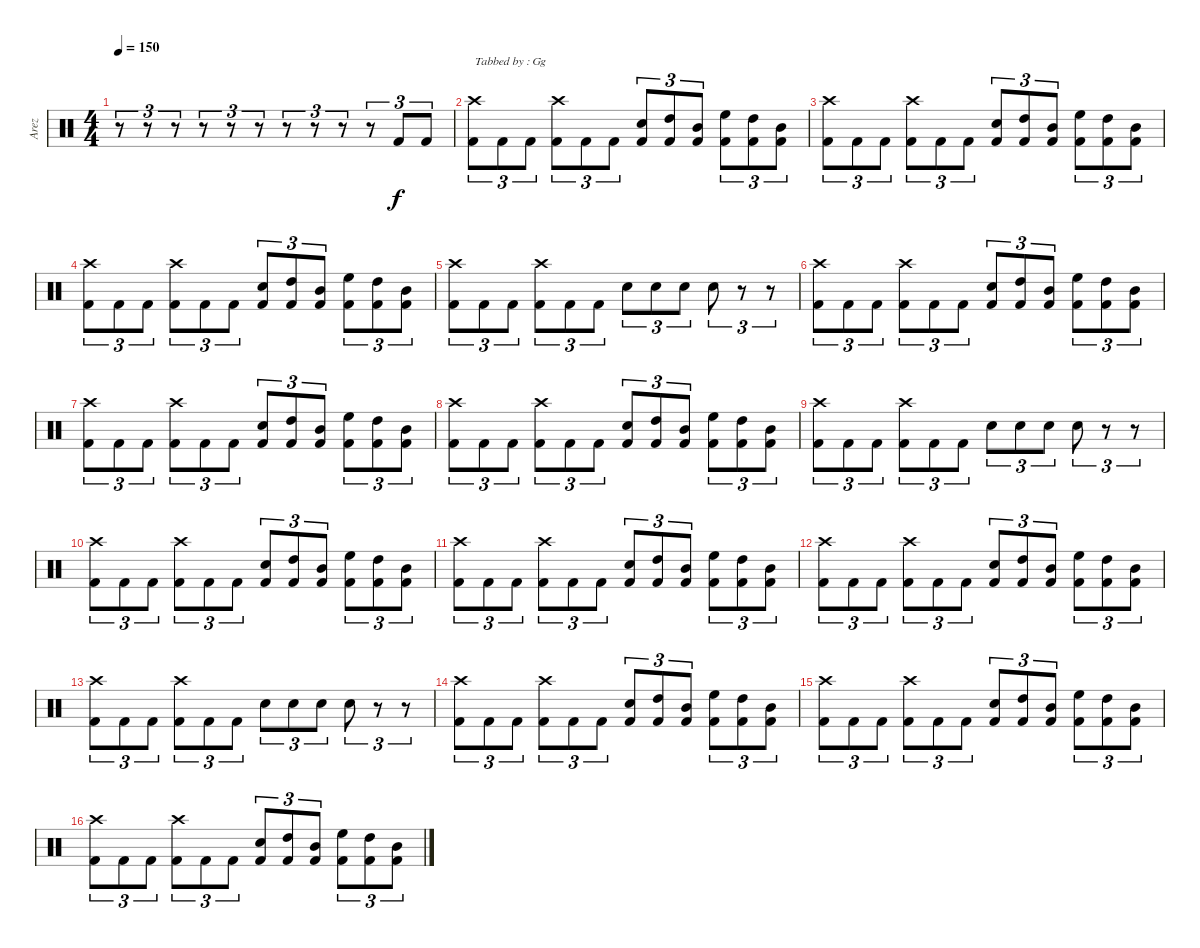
\track ("Arez" "Arez") {instrument percussion}
\staff {score}
\articulation defaults
\ts (4 4)
\tempo 150
\clef neutral
\ks c
r.8{tu (3 2) dy f} r.8{tu (3 2)} r.8{tu (3 2)} r.8{tu (3 2)} r.8{tu (3 2)} r.8{tu (3 2)} r.8{tu (3 2)} r.8{tu (3 2)} r.8{tu (3 2)} r.8{tu (3 2)} "Kick (hit) 2".8{tu (3 2)} "Kick (hit) 2".8{tu (3 2)} |
("Crash high (hit)" "Kick (hit) 2").8{tu (3 2) txt "Tabbed by : Gg"} "Kick (hit) 2".8{tu (3 2)} "Kick (hit) 2".8{tu (3 2)} ("Crash high (hit)" "Kick (hit) 2").8{tu (3 2)} "Kick (hit) 2".8{tu (3 2)} "Kick (hit) 2".8{tu (3 2)} ("Kick (hit) 2" "Electric Snare (hit)").8{tu (3 2)} ("High Tom (hit)" "Kick (hit) 2").8{tu (3 2)} ("Kick (hit) 2" "Mid Tom (hit)").8{tu (3 2)} ("Kick (hit) 2" "High Floor Tom (hit)").8{tu (3 2)} ("High Tom (hit)" "Kick (hit) 2").8{tu (3 2)} ("Kick (hit) 2" "Mid Tom (hit)").8{tu (3 2)} |
("Crash high (hit)" "Kick (hit) 2").8{tu (3 2)} "Kick (hit) 2".8{tu (3 2)} "Kick (hit) 2".8{tu (3 2)} ("Kick (hit) 2" "Crash high (hit)").8{tu (3 2)} "Kick (hit) 2".8{tu (3 2)} "Kick (hit) 2".8{tu (3 2)} ("Kick (hit) 2" "Electric Snare (hit)").8{tu (3 2)} ("High Tom (hit)" "Kick (hit) 2").8{tu (3 2)} ("Kick (hit) 2" "Mid Tom (hit)").8{tu (3 2)} ("Kick (hit) 2" "High Floor Tom (hit)").8{tu (3 2)} ("High Tom (hit)" "Kick (hit) 2").8{tu (3 2)} ("Kick (hit) 2" "Mid Tom (hit)").8{tu (3 2)} |
("Crash high (hit)" "Kick (hit) 2").8{tu (3 2)} "Kick (hit) 2".8{tu (3 2)} "Kick (hit) 2".8{tu (3 2)} ("Kick (hit) 2" "Crash high (hit)").8{tu (3 2)} "Kick (hit) 2".8{tu (3 2)} "Kick (hit) 2".8{tu (3 2)} ("Kick (hit) 2" "Electric Snare (hit)").8{tu (3 2)} ("High Tom (hit)" "Kick (hit) 2").8{tu (3 2)} ("Kick (hit) 2" "Mid Tom (hit)").8{tu (3 2)} ("Kick (hit) 2" "High Floor Tom (hit)").8{tu (3 2)} ("High Tom (hit)" "Kick (hit) 2").8{tu (3 2)} ("Kick (hit) 2" "Mid Tom (hit)").8{tu (3 2)} |
("Crash high (hit)" "Kick (hit) 2").8{tu (3 2)} "Kick (hit) 2".8{tu (3 2)} "Kick (hit) 2".8{tu (3 2)} ("Kick (hit) 2" "Crash high (hit)").8{tu (3 2)} "Kick (hit) 2".8{tu (3 2)} "Kick (hit) 2".8{tu (3 2)} "Electric Snare (hit)".8{tu (3 2)} "Electric Snare (hit)".8{tu (3 2)} "Electric Snare (hit)".8{tu (3 2)} "Electric Snare (hit)".8{tu (3 2)} r.8{tu (3 2)} r.8{tu (3 2)} |
("Crash high (hit)" "Kick (hit) 2").8{tu (3 2)} "Kick (hit) 2".8{tu (3 2)} "Kick (hit) 2".8{tu (3 2)} ("Kick (hit) 2" "Crash high (hit)").8{tu (3 2)} "Kick (hit) 2".8{tu (3 2)} "Kick (hit) 2".8{tu (3 2)} ("Kick (hit) 2" "Electric Snare (hit)").8{tu (3 2)} ("High Tom (hit)" "Kick (hit) 2").8{tu (3 2)} ("Kick (hit) 2" "Mid Tom (hit)").8{tu (3 2)} ("Kick (hit) 2" "High Floor Tom (hit)").8{tu (3 2)} ("High Tom (hit)" "Kick (hit) 2").8{tu (3 2)} ("Kick (hit) 2" "Mid Tom (hit)").8{tu (3 2)} |
("Crash high (hit)" "Kick (hit) 2").8{tu (3 2)} "Kick (hit) 2".8{tu (3 2)} "Kick (hit) 2".8{tu (3 2)} ("Kick (hit) 2" "Crash high (hit)").8{tu (3 2)} "Kick (hit) 2".8{tu (3 2)} "Kick (hit) 2".8{tu (3 2)} ("Kick (hit) 2" "Electric Snare (hit)").8{tu (3 2)} ("High Tom (hit)" "Kick (hit) 2").8{tu (3 2)} ("Kick (hit) 2" "Mid Tom (hit)").8{tu (3 2)} ("Kick (hit) 2" "High Floor Tom (hit)").8{tu (3 2)} ("High Tom (hit)" "Kick (hit) 2").8{tu (3 2)} ("Kick (hit) 2" "Mid Tom (hit)").8{tu (3 2)} |
("Crash high (hit)" "Kick (hit) 2").8{tu (3 2)} "Kick (hit) 2".8{tu (3 2)} "Kick (hit) 2".8{tu (3 2)} ("Kick (hit) 2" "Crash high (hit)").8{tu (3 2)} "Kick (hit) 2".8{tu (3 2)} "Kick (hit) 2".8{tu (3 2)} ("Kick (hit) 2" "Electric Snare (hit)").8{tu (3 2)} ("High Tom (hit)" "Kick (hit) 2").8{tu (3 2)} ("Kick (hit) 2" "Mid Tom (hit)").8{tu (3 2)} ("Kick (hit) 2" "High Floor Tom (hit)").8{tu (3 2)} ("High Tom (hit)" "Kick (hit) 2").8{tu (3 2)} ("Kick (hit) 2" "Mid Tom (hit)").8{tu (3 2)} |
("Crash high (hit)" "Kick (hit) 2").8{tu (3 2)} "Kick (hit) 2".8{tu (3 2)} "Kick (hit) 2".8{tu (3 2)} ("Kick (hit) 2" "Crash high (hit)").8{tu (3 2)} "Kick (hit) 2".8{tu (3 2)} "Kick (hit) 2".8{tu (3 2)} "Electric Snare (hit)".8{tu (3 2)} "Electric Snare (hit)".8{tu (3 2)} "Electric Snare (hit)".8{tu (3 2)} "Electric Snare (hit)".8{tu (3 2)} r.8{tu (3 2)} r.8{tu (3 2)} |
("Crash high (hit)" "Kick (hit) 2").8{tu (3 2)} "Kick (hit) 2".8{tu (3 2)} "Kick (hit) 2".8{tu (3 2)} ("Kick (hit) 2" "Crash high (hit)").8{tu (3 2)} "Kick (hit) 2".8{tu (3 2)} "Kick (hit) 2".8{tu (3 2)} ("Kick (hit) 2" "Electric Snare (hit)").8{tu (3 2)} ("High Tom (hit)" "Kick (hit) 2").8{tu (3 2)} ("Kick (hit) 2" "Mid Tom (hit)").8{tu (3 2)} ("Kick (hit) 2" "High Floor Tom (hit)").8{tu (3 2)} ("High Tom (hit)" "Kick (hit) 2").8{tu (3 2)} ("Kick (hit) 2" "Mid Tom (hit)").8{tu (3 2)} |
("Crash high (hit)" "Kick (hit) 2").8{tu (3 2)} "Kick (hit) 2".8{tu (3 2)} "Kick (hit) 2".8{tu (3 2)} ("Kick (hit) 2" "Crash high (hit)").8{tu (3 2)} "Kick (hit) 2".8{tu (3 2)} "Kick (hit) 2".8{tu (3 2)} ("Kick (hit) 2" "Electric Snare (hit)").8{tu (3 2)} ("High Tom (hit)" "Kick (hit) 2").8{tu (3 2)} ("Kick (hit) 2" "Mid Tom (hit)").8{tu (3 2)} ("Kick (hit) 2" "High Floor Tom (hit)").8{tu (3 2)} ("High Tom (hit)" "Kick (hit) 2").8{tu (3 2)} ("Kick (hit) 2" "Mid Tom (hit)").8{tu (3 2)} |
("Crash high (hit)" "Kick (hit) 2").8{tu (3 2)} "Kick (hit) 2".8{tu (3 2)} "Kick (hit) 2".8{tu (3 2)} ("Kick (hit) 2" "Crash high (hit)").8{tu (3 2)} "Kick (hit) 2".8{tu (3 2)} "Kick (hit) 2".8{tu (3 2)} ("Kick (hit) 2" "Electric Snare (hit)").8{tu (3 2)} ("High Tom (hit)" "Kick (hit) 2").8{tu (3 2)} ("Kick (hit) 2" "Mid Tom (hit)").8{tu (3 2)} ("Kick (hit) 2" "High Floor Tom (hit)").8{tu (3 2)} ("High Tom (hit)" "Kick (hit) 2").8{tu (3 2)} ("Kick (hit) 2" "Mid Tom (hit)").8{tu (3 2)} |
("Crash high (hit)" "Kick (hit) 2").8{tu (3 2)} "Kick (hit) 2".8{tu (3 2)} "Kick (hit) 2".8{tu (3 2)} ("Kick (hit) 2" "Crash high (hit)").8{tu (3 2)} "Kick (hit) 2".8{tu (3 2)} "Kick (hit) 2".8{tu (3 2)} "Electric Snare (hit)".8{tu (3 2)} "Electric Snare (hit)".8{tu (3 2)} "Electric Snare (hit)".8{tu (3 2)} "Electric Snare (hit)".8{tu (3 2)} r.8{tu (3 2)} r.8{tu (3 2)} |
("Crash high (hit)" "Kick (hit) 2").8{tu (3 2)} "Kick (hit) 2".8{tu (3 2)} "Kick (hit) 2".8{tu (3 2)} ("Kick (hit) 2" "Crash high (hit)").8{tu (3 2)} "Kick (hit) 2".8{tu (3 2)} "Kick (hit) 2".8{tu (3 2)} ("Kick (hit) 2" "Electric Snare (hit)").8{tu (3 2)} ("High Tom (hit)" "Kick (hit) 2").8{tu (3 2)} ("Kick (hit) 2" "Mid Tom (hit)").8{tu (3 2)} ("Kick (hit) 2" "High Floor Tom (hit)").8{tu (3 2)} ("High Tom (hit)" "Kick (hit) 2").8{tu (3 2)} ("Kick (hit) 2" "Mid Tom (hit)").8{tu (3 2)} |
("Crash high (hit)" "Kick (hit) 2").8{tu (3 2)} "Kick (hit) 2".8{tu (3 2)} "Kick (hit) 2".8{tu (3 2)} ("Kick (hit) 2" "Crash high (hit)").8{tu (3 2)} "Kick (hit) 2".8{tu (3 2)} "Kick (hit) 2".8{tu (3 2)} ("Kick (hit) 2" "Electric Snare (hit)").8{tu (3 2)} ("High Tom (hit)" "Kick (hit) 2").8{tu (3 2)} ("Kick (hit) 2" "Mid Tom (hit)").8{tu (3 2)} ("Kick (hit) 2" "High Floor Tom (hit)").8{tu (3 2)} ("High Tom (hit)" "Kick (hit) 2").8{tu (3 2)} ("Kick (hit) 2" "Mid Tom (hit)").8{tu (3 2)} |
("Crash high (hit)" "Kick (hit) 2").8{tu (3 2)} "Kick (hit) 2".8{tu (3 2)} "Kick (hit) 2".8{tu (3 2)} ("Kick (hit) 2" "Crash high (hit)").8{tu (3 2)} "Kick (hit) 2".8{tu (3 2)} "Kick (hit) 2".8{tu (3 2)} ("Kick (hit) 2" "Electric Snare (hit)").8{tu (3 2)} ("High Tom (hit)" "Kick (hit) 2").8{tu (3 2)} ("Kick (hit) 2" "Mid Tom (hit)").8{tu (3 2)} ("Kick (hit) 2" "High Floor Tom (hit)").8{tu (3 2)} ("High Tom (hit)" "Kick (hit) 2").8{tu (3 2)} ("Kick (hit) 2" "Mid Tom (hit)").8{tu (3 2)}
